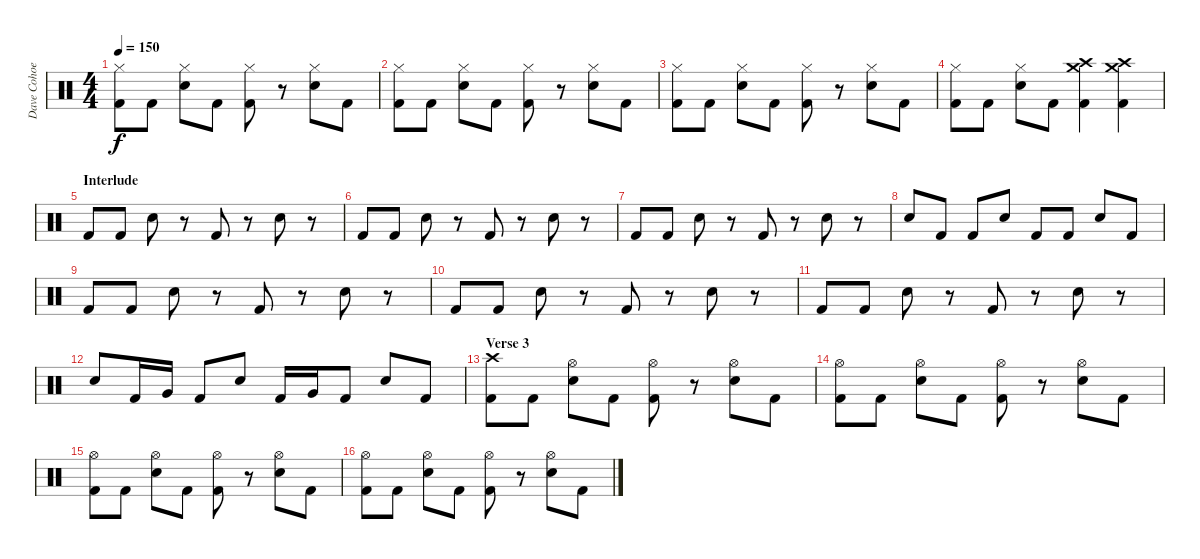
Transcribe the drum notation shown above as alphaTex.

\track ("Dave Cohoe" "Dave Cohoe") {instrument percussion}
\staff {score}
\articulation defaults
\ts (4 4)
\tempo 150
\clef neutral
\ks c
("Hi-Hat (closed)" "Kick (hit) 2").8{dy f} "Kick (hit) 2".8 ("Hi-Hat (closed)" "Snare (hit) 2").8 "Kick (hit) 2".8 ("Hi-Hat (closed)" "Kick (hit) 2").8 r.8 ("Hi-Hat (closed)" "Snare (hit) 2").8 "Kick (hit) 2".8 |
("Hi-Hat (closed)" "Kick (hit) 2").8 "Kick (hit) 2".8 ("Hi-Hat (closed)" "Snare (hit) 2").8 "Kick (hit) 2".8 ("Hi-Hat (closed)" "Kick (hit) 2").8 r.8 ("Hi-Hat (closed)" "Snare (hit) 2").8 "Kick (hit) 2".8 |
("Hi-Hat (closed)" "Kick (hit) 2").8 "Kick (hit) 2".8 ("Hi-Hat (closed)" "Snare (hit) 2").8 "Kick (hit) 2".8 ("Hi-Hat (closed)" "Kick (hit) 2").8 r.8 ("Hi-Hat (closed)" "Snare (hit) 2").8 "Kick (hit) 2".8 |
("Hi-Hat (closed)" "Kick (hit) 2").8 "Kick (hit) 2".8 ("Hi-Hat (closed)" "Snare (hit) 2").8 "Kick (hit) 2".8 ("Crash high (hit)" "Crash medium (hit)" "Kick (hit) 2").4 ("Crash high (hit)" "Crash medium (hit)" "Kick (hit) 2").4 |
\section ("" "Interlude")
"Kick (hit) 2".8{volume 16} "Kick (hit) 2".8 "Snare (hit) 2".8 r.8 "Kick (hit) 2".8 r.8 "Snare (hit) 2".8 r.8 |
"Kick (hit) 2".8 "Kick (hit) 2".8 "Snare (hit) 2".8 r.8 "Kick (hit) 2".8 r.8 "Snare (hit) 2".8 r.8 |
"Kick (hit) 2".8 "Kick (hit) 2".8 "Snare (hit) 2".8 r.8 "Kick (hit) 2".8 r.8 "Snare (hit) 2".8 r.8 |
"Snare (hit) 2".8 "Kick (hit) 2".8 "Kick (hit) 2".8 "Snare (hit) 2".8 "Kick (hit) 2".8 "Kick (hit) 2".8 "Snare (hit) 2".8 "Kick (hit) 2".8 |
"Kick (hit) 2".8 "Kick (hit) 2".8 "Snare (hit) 2".8 r.8 "Kick (hit) 2".8 r.8 "Snare (hit) 2".8 r.8 |
"Kick (hit) 2".8 "Kick (hit) 2".8 "Snare (hit) 2".8 r.8 "Kick (hit) 2".8 r.8 "Snare (hit) 2".8 r.8 |
"Kick (hit) 2".8 "Kick (hit) 2".8 "Snare (hit) 2".8 r.8 "Kick (hit) 2".8 r.8 "Snare (hit) 2".8 r.8 |
"Snare (hit) 2".8 "Kick (hit) 2".16 "Very Low Tom (hit)".16 "Kick (hit) 2".8 "Snare (hit) 2".8 "Kick (hit) 2".16 "Very Low Tom (hit)".16 "Kick (hit) 2".8 "Snare (hit) 2".8 "Kick (hit) 2".8 |
\section ("" "Verse 3")
("Crash high (hit)" "Kick (hit) 2").8 "Kick (hit) 2".8 ("Hi-Hat (open)" "Snare (hit) 2").8 "Kick (hit) 2".8 ("Hi-Hat (open)" "Kick (hit) 2").8 r.8 ("Hi-Hat (open)" "Snare (hit) 2").8 "Kick (hit) 2".8 |
("Hi-Hat (open)" "Kick (hit) 2").8 "Kick (hit) 2".8 ("Hi-Hat (open)" "Snare (hit) 2").8 "Kick (hit) 2".8 ("Hi-Hat (open)" "Kick (hit) 2").8 r.8 ("Hi-Hat (open)" "Snare (hit) 2").8 "Kick (hit) 2".8 |
("Hi-Hat (open)" "Kick (hit) 2").8 "Kick (hit) 2".8 ("Hi-Hat (open)" "Snare (hit) 2").8 "Kick (hit) 2".8 ("Hi-Hat (open)" "Kick (hit) 2").8 r.8 ("Hi-Hat (open)" "Snare (hit) 2").8 "Kick (hit) 2".8 |
("Hi-Hat (open)" "Kick (hit) 2").8 "Kick (hit) 2".8 ("Hi-Hat (open)" "Snare (hit) 2").8 "Kick (hit) 2".8 ("Hi-Hat (open)" "Kick (hit) 2").8 r.8 ("Hi-Hat (open)" "Snare (hit) 2").8 "Kick (hit) 2".8
